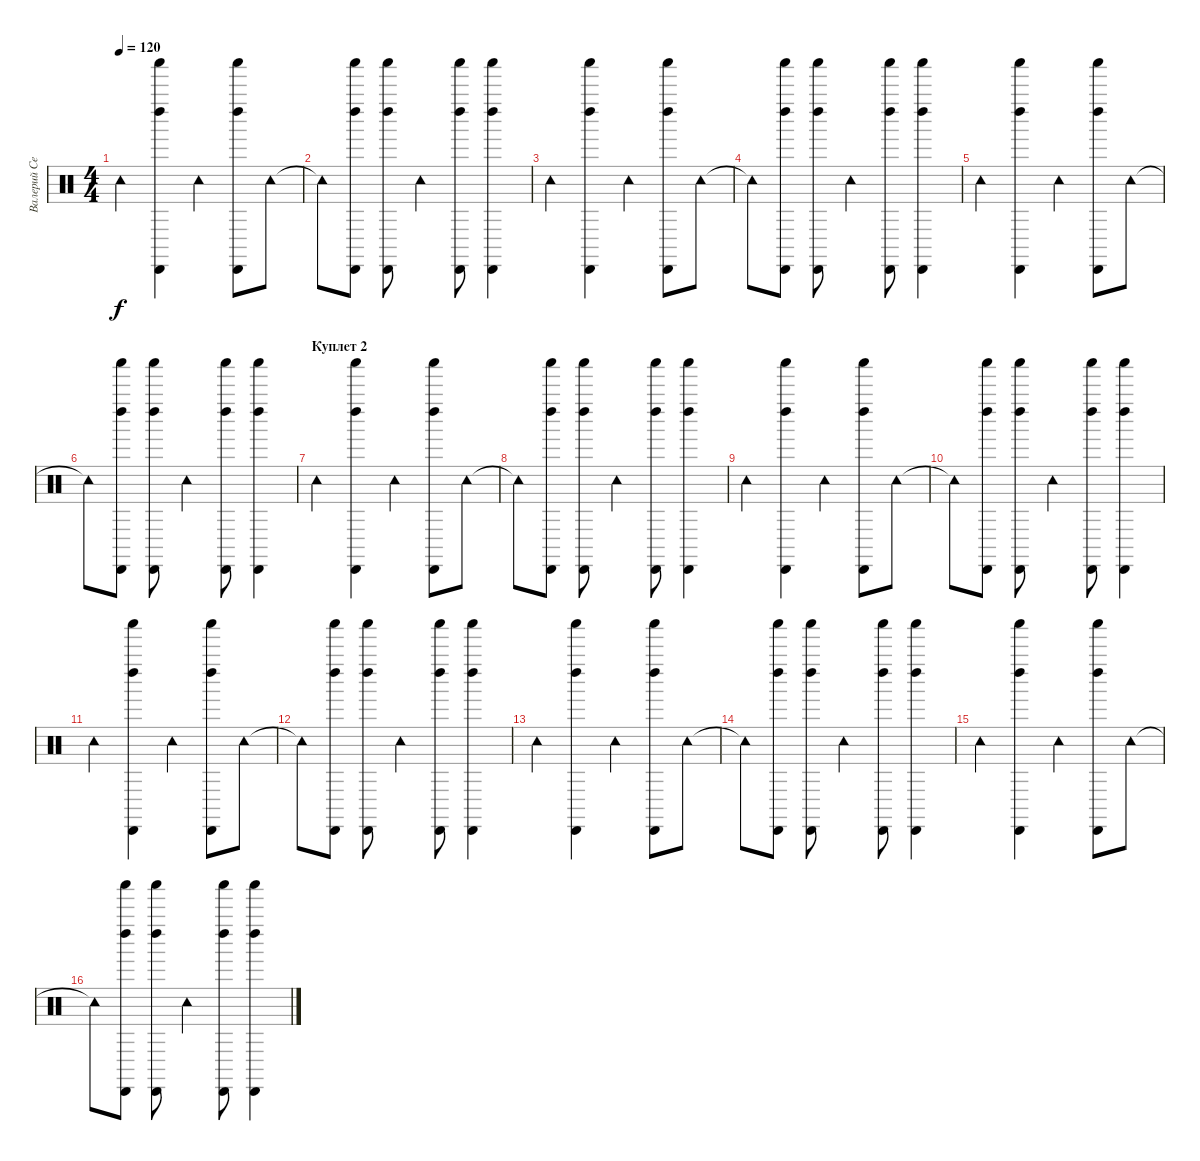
\track ("Валерий Северин" "Валерий Се") {instrument percussion}
\staff {score}
\articulation defaults
\ts (4 4)
\tempo 120
\clef neutral
\ks c "Tambourine (hit)".4{dy f}
("Left Maraca (hit)" "Cabasa (hit)" "Shaker (hit)").4 "Tambourine (hit)".4 ("Left Maraca (hit)" "Cabasa (hit)" "Shaker (hit)").8 "Tambourine (hit)".8 |
"Tambourine (hit)"{t}.8 ("Left Maraca (hit)" "Cabasa (hit)" "Shaker (hit)").8 ("Left Maraca (hit)" "Cabasa (hit)" "Shaker (hit)").8 "Tambourine (hit)".4 ("Left Maraca (hit)" "Cabasa (hit)" "Shaker (hit)").8 ("Left Maraca (hit)" "Cabasa (hit)" "Shaker (hit)").4 |
"Tambourine (hit)".4 ("Left Maraca (hit)" "Cabasa (hit)" "Shaker (hit)").4 "Tambourine (hit)".4 ("Left Maraca (hit)" "Cabasa (hit)" "Shaker (hit)").8 "Tambourine (hit)".8 |
"Tambourine (hit)"{t}.8 ("Left Maraca (hit)" "Cabasa (hit)" "Shaker (hit)").8 ("Left Maraca (hit)" "Cabasa (hit)" "Shaker (hit)").8 "Tambourine (hit)".4 ("Left Maraca (hit)" "Cabasa (hit)" "Shaker (hit)").8 ("Left Maraca (hit)" "Cabasa (hit)" "Shaker (hit)").4 |
"Tambourine (hit)".4 ("Left Maraca (hit)" "Cabasa (hit)" "Shaker (hit)").4 "Tambourine (hit)".4 ("Left Maraca (hit)" "Cabasa (hit)" "Shaker (hit)").8 "Tambourine (hit)".8 |
"Tambourine (hit)"{t}.8 ("Left Maraca (hit)" "Cabasa (hit)" "Shaker (hit)").8 ("Left Maraca (hit)" "Cabasa (hit)" "Shaker (hit)").8 "Tambourine (hit)".4 ("Left Maraca (hit)" "Cabasa (hit)" "Shaker (hit)").8 ("Left Maraca (hit)" "Cabasa (hit)" "Shaker (hit)").4 |
\section ("" "Куплет 2")
"Tambourine (hit)".4 ("Left Maraca (hit)" "Cabasa (hit)" "Shaker (hit)").4 "Tambourine (hit)".4 ("Left Maraca (hit)" "Cabasa (hit)" "Shaker (hit)").8 "Tambourine (hit)".8 |
"Tambourine (hit)"{t}.8 ("Left Maraca (hit)" "Cabasa (hit)" "Shaker (hit)").8 ("Left Maraca (hit)" "Cabasa (hit)" "Shaker (hit)").8 "Tambourine (hit)".4 ("Left Maraca (hit)" "Cabasa (hit)" "Shaker (hit)").8 ("Left Maraca (hit)" "Cabasa (hit)" "Shaker (hit)").4 |
"Tambourine (hit)".4 ("Left Maraca (hit)" "Cabasa (hit)" "Shaker (hit)").4 "Tambourine (hit)".4 ("Left Maraca (hit)" "Cabasa (hit)" "Shaker (hit)").8 "Tambourine (hit)".8 |
"Tambourine (hit)"{t}.8 ("Left Maraca (hit)" "Cabasa (hit)" "Shaker (hit)").8 ("Left Maraca (hit)" "Cabasa (hit)" "Shaker (hit)").8 "Tambourine (hit)".4 ("Left Maraca (hit)" "Cabasa (hit)" "Shaker (hit)").8 ("Left Maraca (hit)" "Cabasa (hit)" "Shaker (hit)").4 |
"Tambourine (hit)".4 ("Left Maraca (hit)" "Cabasa (hit)" "Shaker (hit)").4 "Tambourine (hit)".4 ("Left Maraca (hit)" "Cabasa (hit)" "Shaker (hit)").8 "Tambourine (hit)".8 |
"Tambourine (hit)"{t}.8 ("Left Maraca (hit)" "Cabasa (hit)" "Shaker (hit)").8 ("Left Maraca (hit)" "Cabasa (hit)" "Shaker (hit)").8 "Tambourine (hit)".4 ("Left Maraca (hit)" "Cabasa (hit)" "Shaker (hit)").8 ("Left Maraca (hit)" "Cabasa (hit)" "Shaker (hit)").4 |
"Tambourine (hit)".4 ("Left Maraca (hit)" "Cabasa (hit)" "Shaker (hit)").4 "Tambourine (hit)".4 ("Left Maraca (hit)" "Cabasa (hit)" "Shaker (hit)").8 "Tambourine (hit)".8 |
"Tambourine (hit)"{t}.8 ("Left Maraca (hit)" "Cabasa (hit)" "Shaker (hit)").8 ("Left Maraca (hit)" "Cabasa (hit)" "Shaker (hit)").8 "Tambourine (hit)".4 ("Left Maraca (hit)" "Cabasa (hit)" "Shaker (hit)").8 ("Left Maraca (hit)" "Cabasa (hit)" "Shaker (hit)").4 |
"Tambourine (hit)".4 ("Left Maraca (hit)" "Cabasa (hit)" "Shaker (hit)").4 "Tambourine (hit)".4 ("Left Maraca (hit)" "Cabasa (hit)" "Shaker (hit)").8 "Tambourine (hit)".8 |
"Tambourine (hit)"{t}.8 ("Left Maraca (hit)" "Cabasa (hit)" "Shaker (hit)").8 ("Left Maraca (hit)" "Cabasa (hit)" "Shaker (hit)").8 "Tambourine (hit)".4 ("Left Maraca (hit)" "Cabasa (hit)" "Shaker (hit)").8 ("Left Maraca (hit)" "Cabasa (hit)" "Shaker (hit)").4
